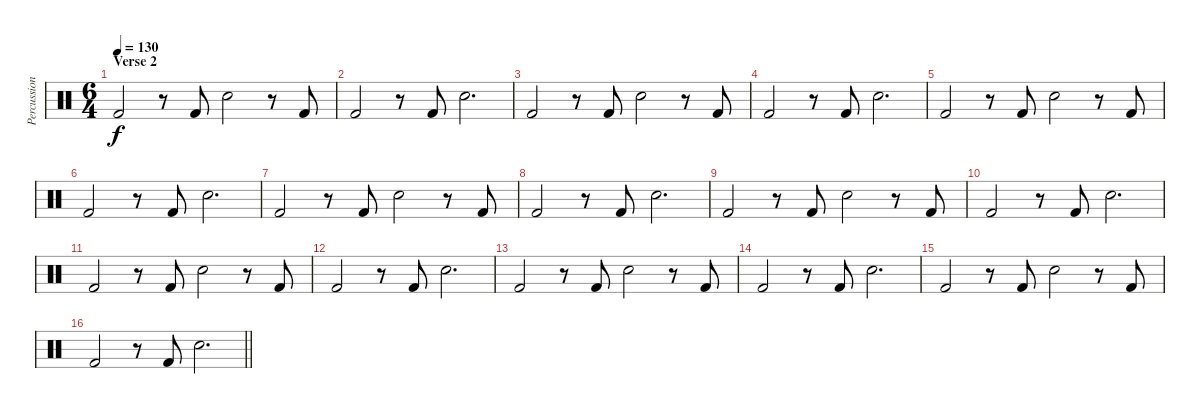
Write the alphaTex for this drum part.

\track ("Percussion" "Percussion") {instrument percussion}
\staff {score}
\articulation defaults
\ts (6 4)
\section ("" "Verse 2")
\tempo 130
\clef neutral
\ks c "Kick (hit) 2".2{dy f}
r.8 "Kick (hit) 2".8 "Electric Snare (hit)".2 r.8 "Kick (hit) 2".8 |
"Kick (hit) 2".2 r.8 "Kick (hit) 2".8 "Electric Snare (hit)".2{d} |
"Kick (hit) 2".2 r.8 "Kick (hit) 2".8 "Electric Snare (hit)".2 r.8 "Kick (hit) 2".8 |
"Kick (hit) 2".2 r.8 "Kick (hit) 2".8 "Electric Snare (hit)".2{d} |
"Kick (hit) 2".2 r.8 "Kick (hit) 2".8 "Electric Snare (hit)".2 r.8 "Kick (hit) 2".8 |
"Kick (hit) 2".2 r.8 "Kick (hit) 2".8 "Electric Snare (hit)".2{d} |
"Kick (hit) 2".2 r.8 "Kick (hit) 2".8 "Electric Snare (hit)".2 r.8 "Kick (hit) 2".8 |
"Kick (hit) 2".2 r.8 "Kick (hit) 2".8 "Electric Snare (hit)".2{d} |
"Kick (hit) 2".2 r.8 "Kick (hit) 2".8 "Electric Snare (hit)".2 r.8 "Kick (hit) 2".8 |
"Kick (hit) 2".2 r.8 "Kick (hit) 2".8 "Electric Snare (hit)".2{d} |
"Kick (hit) 2".2 r.8 "Kick (hit) 2".8 "Electric Snare (hit)".2 r.8 "Kick (hit) 2".8 |
"Kick (hit) 2".2 r.8 "Kick (hit) 2".8 "Electric Snare (hit)".2{d} |
"Kick (hit) 2".2 r.8 "Kick (hit) 2".8 "Electric Snare (hit)".2 r.8 "Kick (hit) 2".8 |
"Kick (hit) 2".2 r.8 "Kick (hit) 2".8 "Electric Snare (hit)".2{d} |
"Kick (hit) 2".2 r.8 "Kick (hit) 2".8 "Electric Snare (hit)".2 r.8 "Kick (hit) 2".8 |
\barLineRight lightlight "Kick (hit) 2".2
r.8 "Kick (hit) 2".8 "Electric Snare (hit)".2{d}
